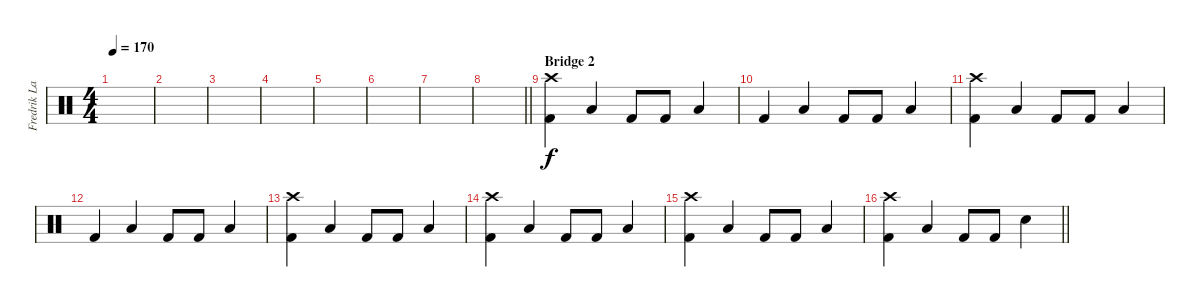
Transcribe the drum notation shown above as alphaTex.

\track ("Fredrik Larzon" "Fredrik La") {instrument percussion}
\staff {score}
\articulation defaults
\ts (4 4)
\tempo 170
\clef neutral
\ks c
|
|
|
|
|
|
|
\barLineRight lightlight
|
\section ("" "Bridge 2")
("Crash high (hit)" "Kick (hit) 2").4 "Low Tom (hit)".4 "Kick (hit) 2".8 "Kick (hit) 2".8 "Low Tom (hit)".4 |
"Kick (hit) 2".4 "Low Tom (hit)".4 "Kick (hit) 2".8 "Kick (hit) 2".8 "Low Tom (hit)".4 |
("Crash high (hit)" "Kick (hit) 2").4 "Low Tom (hit)".4 "Kick (hit) 2".8 "Kick (hit) 2".8 "Low Tom (hit)".4 |
"Kick (hit) 2".4 "Low Tom (hit)".4 "Kick (hit) 2".8 "Kick (hit) 2".8 "Low Tom (hit)".4 |
("Crash high (hit)" "Kick (hit) 2").4 "Low Tom (hit)".4 "Kick (hit) 2".8 "Kick (hit) 2".8 "Low Tom (hit)".4 |
("Crash high (hit)" "Kick (hit) 2").4 "Low Tom (hit)".4 "Kick (hit) 2".8 "Kick (hit) 2".8 "Low Tom (hit)".4 |
("Crash high (hit)" "Kick (hit) 2").4 "Low Tom (hit)".4 "Kick (hit) 2".8 "Kick (hit) 2".8 "Low Tom (hit)".4 |
\barLineRight lightlight
("Crash high (hit)" "Kick (hit) 2").4 "Low Tom (hit)".4 "Kick (hit) 2".8 "Kick (hit) 2".8 "Electric Snare (hit)".4
